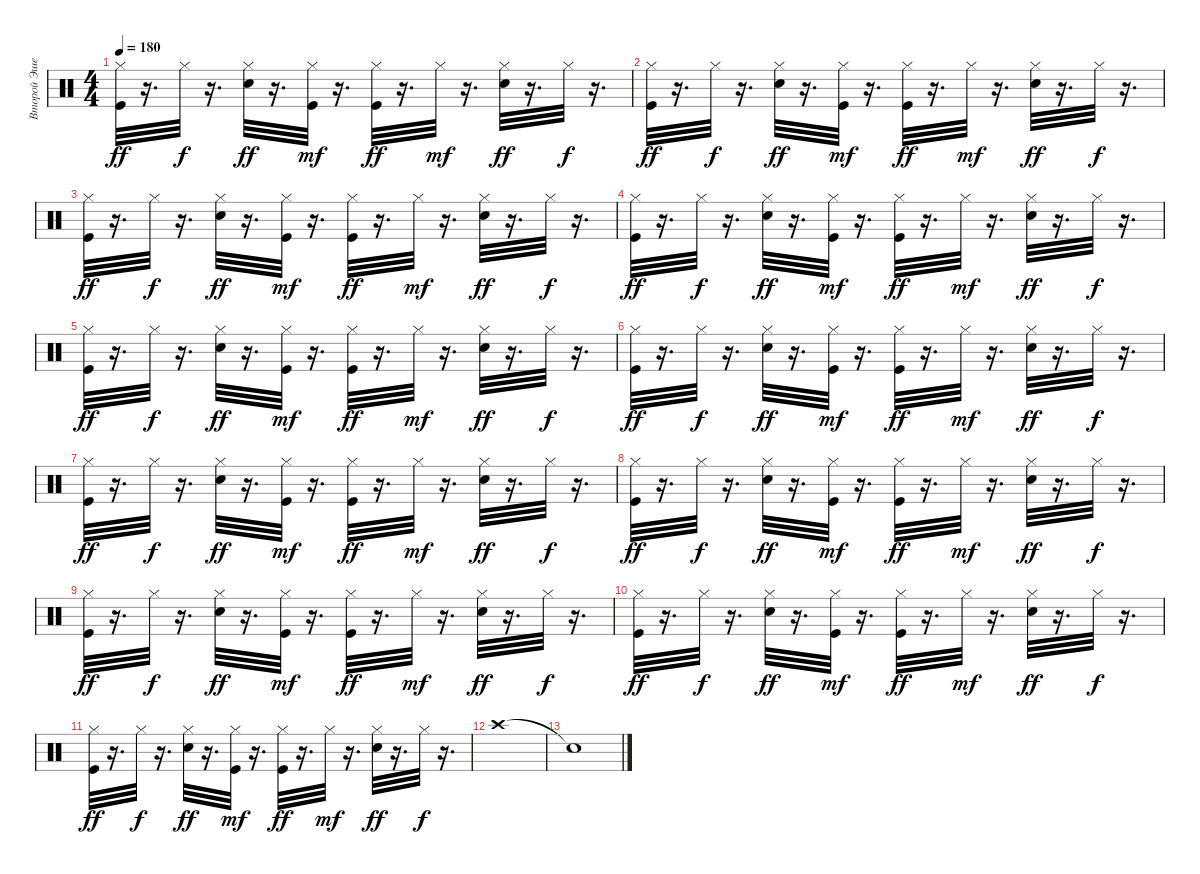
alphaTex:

\track ("Второй Эшелон" "Второй Эше") {instrument percussion}
\staff {score}
\articulation defaults
\ts (4 4)
\tempo 180
\clef neutral
\ks c
("Kick (hit)" "Hi-Hat (closed)").32{dy ff} r.16{d} "Hi-Hat (closed)".32{dy f} r.16{d} ("Hi-Hat (closed)" "Electric Snare (hit)").32{dy ff} r.16{d} ("Kick (hit)" "Hi-Hat (closed)").32{dy mf} r.16{d} ("Kick (hit)" "Hi-Hat (closed)").32{dy ff} r.16{d} "Hi-Hat (closed)".32{dy mf} r.16{d} ("Hi-Hat (closed)" "Electric Snare (hit)").32{dy ff} r.16{d} "Hi-Hat (closed)".32{dy f} r.16{d} |
("Kick (hit)" "Hi-Hat (closed)").32{dy ff} r.16{d} "Hi-Hat (closed)".32{dy f} r.16{d} ("Hi-Hat (closed)" "Electric Snare (hit)").32{dy ff} r.16{d} ("Kick (hit)" "Hi-Hat (closed)").32{dy mf} r.16{d} ("Kick (hit)" "Hi-Hat (closed)").32{dy ff} r.16{d} "Hi-Hat (closed)".32{dy mf} r.16{d} ("Hi-Hat (closed)" "Electric Snare (hit)").32{dy ff} r.16{d} "Hi-Hat (closed)".32{dy f} r.16{d} |
("Kick (hit)" "Hi-Hat (closed)").32{dy ff} r.16{d} "Hi-Hat (closed)".32{dy f} r.16{d} ("Hi-Hat (closed)" "Electric Snare (hit)").32{dy ff} r.16{d} ("Kick (hit)" "Hi-Hat (closed)").32{dy mf} r.16{d} ("Kick (hit)" "Hi-Hat (closed)").32{dy ff} r.16{d} "Hi-Hat (closed)".32{dy mf} r.16{d} ("Hi-Hat (closed)" "Electric Snare (hit)").32{dy ff} r.16{d} "Hi-Hat (closed)".32{dy f} r.16{d} |
("Kick (hit)" "Hi-Hat (closed)").32{dy ff} r.16{d} "Hi-Hat (closed)".32{dy f} r.16{d} ("Hi-Hat (closed)" "Electric Snare (hit)").32{dy ff} r.16{d} ("Kick (hit)" "Hi-Hat (closed)").32{dy mf} r.16{d} ("Kick (hit)" "Hi-Hat (closed)").32{dy ff} r.16{d} "Hi-Hat (closed)".32{dy mf} r.16{d} ("Hi-Hat (closed)" "Electric Snare (hit)").32{dy ff} r.16{d} "Hi-Hat (closed)".32{dy f} r.16{d} |
("Kick (hit)" "Hi-Hat (closed)").32{dy ff} r.16{d} "Hi-Hat (closed)".32{dy f} r.16{d} ("Hi-Hat (closed)" "Electric Snare (hit)").32{dy ff} r.16{d} ("Kick (hit)" "Hi-Hat (closed)").32{dy mf} r.16{d} ("Kick (hit)" "Hi-Hat (closed)").32{dy ff} r.16{d} "Hi-Hat (closed)".32{dy mf} r.16{d} ("Hi-Hat (closed)" "Electric Snare (hit)").32{dy ff} r.16{d} "Hi-Hat (closed)".32{dy f} r.16{d} |
("Kick (hit)" "Hi-Hat (closed)").32{dy ff} r.16{d} "Hi-Hat (closed)".32{dy f} r.16{d} ("Hi-Hat (closed)" "Electric Snare (hit)").32{dy ff} r.16{d} ("Kick (hit)" "Hi-Hat (closed)").32{dy mf} r.16{d} ("Kick (hit)" "Hi-Hat (closed)").32{dy ff} r.16{d} "Hi-Hat (closed)".32{dy mf} r.16{d} ("Hi-Hat (closed)" "Electric Snare (hit)").32{dy ff} r.16{d} "Hi-Hat (closed)".32{dy f} r.16{d} |
("Kick (hit)" "Hi-Hat (closed)").32{dy ff} r.16{d} "Hi-Hat (closed)".32{dy f} r.16{d} ("Hi-Hat (closed)" "Electric Snare (hit)").32{dy ff} r.16{d} ("Kick (hit)" "Hi-Hat (closed)").32{dy mf} r.16{d} ("Kick (hit)" "Hi-Hat (closed)").32{dy ff} r.16{d} "Hi-Hat (closed)".32{dy mf} r.16{d} ("Hi-Hat (closed)" "Electric Snare (hit)").32{dy ff} r.16{d} "Hi-Hat (closed)".32{dy f} r.16{d} |
("Kick (hit)" "Hi-Hat (closed)").32{dy ff} r.16{d} "Hi-Hat (closed)".32{dy f} r.16{d} ("Hi-Hat (closed)" "Electric Snare (hit)").32{dy ff} r.16{d} ("Kick (hit)" "Hi-Hat (closed)").32{dy mf} r.16{d} ("Kick (hit)" "Hi-Hat (closed)").32{dy ff} r.16{d} "Hi-Hat (closed)".32{dy mf} r.16{d} ("Hi-Hat (closed)" "Electric Snare (hit)").32{dy ff} r.16{d} "Hi-Hat (closed)".32{dy f} r.16{d} |
("Kick (hit)" "Hi-Hat (closed)").32{dy ff} r.16{d} "Hi-Hat (closed)".32{dy f} r.16{d} ("Hi-Hat (closed)" "Electric Snare (hit)").32{dy ff} r.16{d} ("Kick (hit)" "Hi-Hat (closed)").32{dy mf} r.16{d} ("Kick (hit)" "Hi-Hat (closed)").32{dy ff} r.16{d} "Hi-Hat (closed)".32{dy mf} r.16{d} ("Hi-Hat (closed)" "Electric Snare (hit)").32{dy ff} r.16{d} "Hi-Hat (closed)".32{dy f} r.16{d} |
("Kick (hit)" "Hi-Hat (closed)").32{dy ff} r.16{d} "Hi-Hat (closed)".32{dy f} r.16{d} ("Hi-Hat (closed)" "Electric Snare (hit)").32{dy ff} r.16{d} ("Kick (hit)" "Hi-Hat (closed)").32{dy mf} r.16{d} ("Kick (hit)" "Hi-Hat (closed)").32{dy ff} r.16{d} "Hi-Hat (closed)".32{dy mf} r.16{d} ("Hi-Hat (closed)" "Electric Snare (hit)").32{dy ff} r.16{d} "Hi-Hat (closed)".32{dy f} r.16{d} |
("Kick (hit)" "Hi-Hat (closed)").32{dy ff} r.16{d} "Hi-Hat (closed)".32{dy f} r.16{d} ("Hi-Hat (closed)" "Electric Snare (hit)").32{dy ff} r.16{d} ("Kick (hit)" "Hi-Hat (closed)").32{dy mf} r.16{d} ("Kick (hit)" "Hi-Hat (closed)").32{dy ff} r.16{d} "Hi-Hat (closed)".32{dy mf} r.16{d} ("Hi-Hat (closed)" "Electric Snare (hit)").32{dy ff} r.16{d} "Hi-Hat (closed)".32{dy f} r.16{d} |
"Crash high (hit)".1 |
"Snare (hit)"{t}.1
